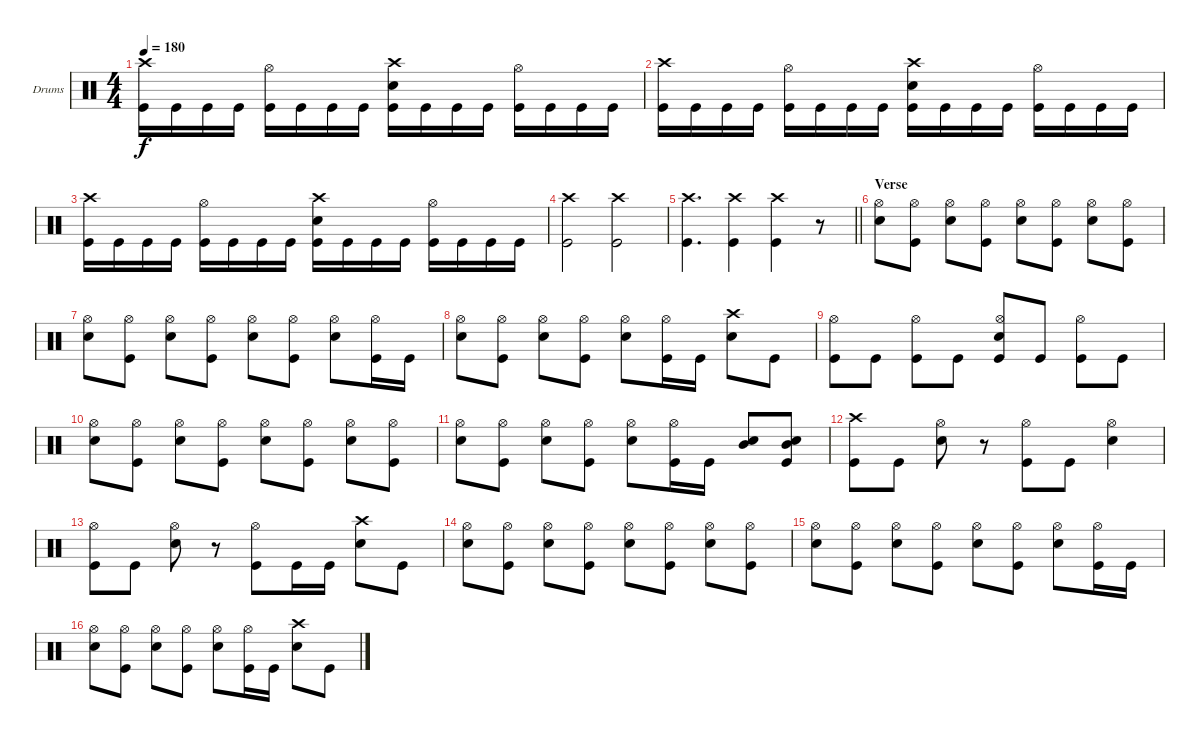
\bracketExtendMode groupsimilarinstruments
\firstSystemTrackNameOrientation horizontal
\otherSystemsTrackNameOrientation horizontal
\track ("Drumkit" "Drums") {instrument percussion}
\staff {score}
\articulation defaults
\ts (4 4)
\tempo 180
\clef neutral
\ks c
("Crash high (hit)" "Kick (hit)").16{dy f} "Kick (hit)".16 "Kick (hit)".16 "Kick (hit)".16 ("Hi-Hat (open)" "Kick (hit)").16 "Kick (hit)".16 "Kick (hit)".16 "Kick (hit)".16 ("Crash high (hit)" "Snare (hit) 2" "Kick (hit)").16 "Kick (hit)".16 "Kick (hit)".16 "Kick (hit)".16 ("Hi-Hat (open)" "Kick (hit)").16 "Kick (hit)".16 "Kick (hit)".16 "Kick (hit)".16 |
("Crash high (hit)" "Kick (hit)").16 "Kick (hit)".16 "Kick (hit)".16 "Kick (hit)".16 ("Hi-Hat (open)" "Kick (hit)").16 "Kick (hit)".16 "Kick (hit)".16 "Kick (hit)".16 ("Crash high (hit)" "Snare (hit) 2" "Kick (hit)").16 "Kick (hit)".16 "Kick (hit)".16 "Kick (hit)".16 ("Hi-Hat (open)" "Kick (hit)").16 "Kick (hit)".16 "Kick (hit)".16 "Kick (hit)".16 |
("Crash high (hit)" "Kick (hit)").16 "Kick (hit)".16 "Kick (hit)".16 "Kick (hit)".16 ("Hi-Hat (open)" "Kick (hit)").16 "Kick (hit)".16 "Kick (hit)".16 "Kick (hit)".16 ("Crash high (hit)" "Snare (hit) 2" "Kick (hit)").16 "Kick (hit)".16 "Kick (hit)".16 "Kick (hit)".16 ("Hi-Hat (open)" "Kick (hit)").16 "Kick (hit)".16 "Kick (hit)".16 "Kick (hit)".16 |
("Crash high (hit)" "Kick (hit)").2 ("Crash high (hit)" "Kick (hit)").2 |
\barLineRight lightlight
("Crash high (hit)" "Kick (hit)").4{d} ("Crash high (hit)" "Kick (hit)").4 ("Crash high (hit)" "Kick (hit)").4 r.8 |
\section ("" "Verse")
("Hi-Hat (open)" "Snare (hit) 2").8 ("Hi-Hat (open)" "Kick (hit)").8 ("Hi-Hat (open)" "Snare (hit) 2").8 ("Hi-Hat (open)" "Kick (hit)").8 ("Hi-Hat (open)" "Snare (hit) 2").8 ("Hi-Hat (open)" "Kick (hit)").8 ("Hi-Hat (open)" "Snare (hit) 2").8 ("Hi-Hat (open)" "Kick (hit)").8 |
("Hi-Hat (open)" "Snare (hit) 2").8 ("Hi-Hat (open)" "Kick (hit)").8 ("Hi-Hat (open)" "Snare (hit) 2").8 ("Hi-Hat (open)" "Kick (hit)").8 ("Hi-Hat (open)" "Snare (hit) 2").8 ("Hi-Hat (open)" "Kick (hit)").8 ("Hi-Hat (open)" "Snare (hit) 2").8 ("Hi-Hat (open)" "Kick (hit)").16 "Kick (hit)".16 |
("Hi-Hat (open)" "Snare (hit) 2").8 ("Hi-Hat (open)" "Kick (hit)").8 ("Hi-Hat (open)" "Snare (hit) 2").8 ("Hi-Hat (open)" "Kick (hit)").8 ("Hi-Hat (open)" "Snare (hit) 2").8 ("Hi-Hat (open)" "Kick (hit)").16 "Kick (hit)".16 ("Crash high (hit)" "Snare (hit) 2").8 "Kick (hit)".8 |
("Hi-Hat (open)" "Kick (hit)").8 "Kick (hit)".8 ("Hi-Hat (open)" "Kick (hit)").8 "Kick (hit)".8 ("Hi-Hat (open)" "Snare (hit) 2" "Kick (hit)").8 "Kick (hit)".8 ("Hi-Hat (open)" "Kick (hit)").8 "Kick (hit)".8 |
("Hi-Hat (open)" "Snare (hit) 2").8 ("Hi-Hat (open)" "Kick (hit)").8 ("Hi-Hat (open)" "Snare (hit) 2").8 ("Hi-Hat (open)" "Kick (hit)").8 ("Hi-Hat (open)" "Snare (hit) 2").8 ("Hi-Hat (open)" "Kick (hit)").8 ("Hi-Hat (open)" "Snare (hit) 2").8 ("Hi-Hat (open)" "Kick (hit)").8 |
("Hi-Hat (open)" "Snare (hit) 2").8 ("Hi-Hat (open)" "Kick (hit)").8 ("Hi-Hat (open)" "Snare (hit) 2").8 ("Hi-Hat (open)" "Kick (hit)").8 ("Hi-Hat (open)" "Snare (hit) 2").8 ("Hi-Hat (open)" "Kick (hit)").16 "Kick (hit)".16 ("Mid Tom (hit)" "Snare (hit) 2").8 ("Mid Tom (hit)" "Snare (hit) 2" "Kick (hit)").8 |
("Crash high (hit)" "Kick (hit)").8 "Kick (hit)".8 ("Hi-Hat (open)" "Snare (hit) 2").8 r.8 ("Hi-Hat (open)" "Kick (hit)").8 "Kick (hit)".8 ("Hi-Hat (open)" "Snare (hit) 2").4 |
("Hi-Hat (open)" "Kick (hit)").8 "Kick (hit)".8 ("Hi-Hat (open)" "Snare (hit) 2").8 r.8 ("Hi-Hat (open)" "Kick (hit)").8 "Kick (hit)".16 "Kick (hit)".16 ("Crash high (hit)" "Snare (hit) 2").8 "Kick (hit)".8 |
("Hi-Hat (open)" "Snare (hit) 2").8 ("Hi-Hat (open)" "Kick (hit)").8 ("Hi-Hat (open)" "Snare (hit) 2").8 ("Hi-Hat (open)" "Kick (hit)").8 ("Hi-Hat (open)" "Snare (hit) 2").8 ("Hi-Hat (open)" "Kick (hit)").8 ("Hi-Hat (open)" "Snare (hit) 2").8 ("Hi-Hat (open)" "Kick (hit)").8 |
("Hi-Hat (open)" "Snare (hit) 2").8 ("Hi-Hat (open)" "Kick (hit)").8 ("Hi-Hat (open)" "Snare (hit) 2").8 ("Hi-Hat (open)" "Kick (hit)").8 ("Hi-Hat (open)" "Snare (hit) 2").8 ("Hi-Hat (open)" "Kick (hit)").8 ("Hi-Hat (open)" "Snare (hit) 2").8 ("Hi-Hat (open)" "Kick (hit)").16 "Kick (hit)".16 |
("Hi-Hat (open)" "Snare (hit) 2").8 ("Hi-Hat (open)" "Kick (hit)").8 ("Hi-Hat (open)" "Snare (hit) 2").8 ("Hi-Hat (open)" "Kick (hit)").8 ("Hi-Hat (open)" "Snare (hit) 2").8 ("Hi-Hat (open)" "Kick (hit)").16 "Kick (hit)".16 ("Crash high (hit)" "Snare (hit) 2").8 "Kick (hit)".8
